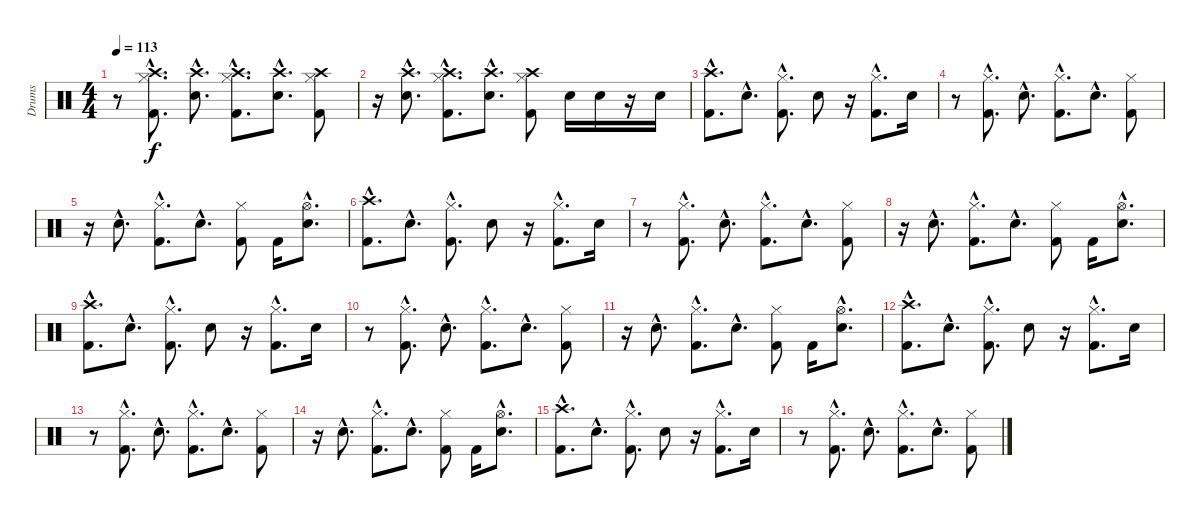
\track ("Drums" "Drums") {instrument percussion}
\staff {score}
\articulation defaults
\ts (4 4)
\tempo 113
\clef neutral
\ks c
r.8{dy f} ("Crash high (hit)"{hac} "Hi-Hat (closed)"{hac} "Kick (hit) 2"{hac}).8{d} ("Crash high (hit)"{hac} "Electric Snare (hit)"{hac}).8{d} ("Crash high (hit)"{hac} "Hi-Hat (closed)"{hac} "Kick (hit) 2"{hac}).8{d} ("Crash high (hit)"{hac} "Electric Snare (hit)"{hac}).8{d} ("Crash high (hit)" "Hi-Hat (closed)" "Kick (hit) 2").8 |
r.16 ("Crash high (hit)"{hac} "Electric Snare (hit)"{hac}).8{d} ("Crash high (hit)"{hac} "Hi-Hat (closed)"{hac} "Kick (hit) 2"{hac}).8{d} ("Crash high (hit)"{hac} "Electric Snare (hit)"{hac}).8{d} ("Crash high (hit)" "Hi-Hat (closed)" "Kick (hit) 2").8 "Electric Snare (hit)".16 "Electric Snare (hit)".16 r.16 "Electric Snare (hit)".16 |
("Crash high (hit)"{hac} "Kick (hit) 2"{hac}).8{d} "Electric Snare (hit)"{hac}.8{d} ("Hi-Hat (closed)"{hac} "Kick (hit) 2"{hac}).8{d} "Electric Snare (hit)".8 r.16 ("Hi-Hat (closed)"{hac} "Kick (hit) 2"{hac}).8{d} "Electric Snare (hit)".16 |
r.8 ("Hi-Hat (closed)"{hac} "Kick (hit) 2"{hac}).8{d} "Electric Snare (hit)"{hac}.8{d} ("Hi-Hat (closed)"{hac} "Kick (hit) 2"{hac}).8{d} "Electric Snare (hit)"{hac}.8{d} ("Hi-Hat (closed)" "Kick (hit) 2").8 |
r.16 "Electric Snare (hit)"{hac}.8{d} ("Hi-Hat (closed)"{hac} "Kick (hit) 2"{hac}).8{d} "Electric Snare (hit)"{hac}.8{d} ("Hi-Hat (closed)" "Kick (hit) 2").8 "Kick (hit) 2".16 ("Hi-Hat (open)"{hac} "Electric Snare (hit)"{hac}).8{d} |
("Crash high (hit)"{hac} "Kick (hit) 2"{hac}).8{d} "Electric Snare (hit)"{hac}.8{d} ("Hi-Hat (closed)"{hac} "Kick (hit) 2"{hac}).8{d} "Electric Snare (hit)".8 r.16 ("Hi-Hat (closed)"{hac} "Kick (hit) 2"{hac}).8{d} "Electric Snare (hit)".16 |
r.8 ("Hi-Hat (closed)"{hac} "Kick (hit) 2"{hac}).8{d} "Electric Snare (hit)"{hac}.8{d} ("Hi-Hat (closed)"{hac} "Kick (hit) 2"{hac}).8{d} "Electric Snare (hit)"{hac}.8{d} ("Hi-Hat (closed)" "Kick (hit) 2").8 |
r.16 "Electric Snare (hit)"{hac}.8{d} ("Hi-Hat (closed)"{hac} "Kick (hit) 2"{hac}).8{d} "Electric Snare (hit)"{hac}.8{d} ("Hi-Hat (closed)" "Kick (hit) 2").8 "Kick (hit) 2".16 ("Hi-Hat (open)"{hac} "Electric Snare (hit)"{hac}).8{d} |
("Crash high (hit)"{hac} "Kick (hit) 2"{hac}).8{d} "Electric Snare (hit)"{hac}.8{d} ("Hi-Hat (closed)"{hac} "Kick (hit) 2"{hac}).8{d} "Electric Snare (hit)".8 r.16 ("Hi-Hat (closed)"{hac} "Kick (hit) 2"{hac}).8{d} "Electric Snare (hit)".16 |
r.8 ("Hi-Hat (closed)"{hac} "Kick (hit) 2"{hac}).8{d} "Electric Snare (hit)"{hac}.8{d} ("Hi-Hat (closed)"{hac} "Kick (hit) 2"{hac}).8{d} "Electric Snare (hit)"{hac}.8{d} ("Hi-Hat (closed)" "Kick (hit) 2").8 |
r.16 "Electric Snare (hit)"{hac}.8{d} ("Hi-Hat (closed)"{hac} "Kick (hit) 2"{hac}).8{d} "Electric Snare (hit)"{hac}.8{d} ("Hi-Hat (closed)" "Kick (hit) 2").8 "Kick (hit) 2".16 ("Hi-Hat (open)"{hac} "Electric Snare (hit)"{hac}).8{d} |
("Crash high (hit)"{hac} "Kick (hit) 2"{hac}).8{d} "Electric Snare (hit)"{hac}.8{d} ("Hi-Hat (closed)"{hac} "Kick (hit) 2"{hac}).8{d} "Electric Snare (hit)".8 r.16 ("Hi-Hat (closed)"{hac} "Kick (hit) 2"{hac}).8{d} "Electric Snare (hit)".16 |
r.8 ("Hi-Hat (closed)"{hac} "Kick (hit) 2"{hac}).8{d} "Electric Snare (hit)"{hac}.8{d} ("Hi-Hat (closed)"{hac} "Kick (hit) 2"{hac}).8{d} "Electric Snare (hit)"{hac}.8{d} ("Hi-Hat (closed)" "Kick (hit) 2").8 |
r.16 "Electric Snare (hit)"{hac}.8{d} ("Hi-Hat (closed)"{hac} "Kick (hit) 2"{hac}).8{d} "Electric Snare (hit)"{hac}.8{d} ("Hi-Hat (closed)" "Kick (hit) 2").8 "Kick (hit) 2".16 ("Hi-Hat (open)"{hac} "Electric Snare (hit)"{hac}).8{d} |
("Crash high (hit)"{hac} "Kick (hit) 2"{hac}).8{d} "Electric Snare (hit)"{hac}.8{d} ("Hi-Hat (closed)"{hac} "Kick (hit) 2"{hac}).8{d} "Electric Snare (hit)".8 r.16 ("Hi-Hat (closed)"{hac} "Kick (hit) 2"{hac}).8{d} "Electric Snare (hit)".16 |
r.8 ("Hi-Hat (closed)"{hac} "Kick (hit) 2"{hac}).8{d} "Electric Snare (hit)"{hac}.8{d} ("Hi-Hat (closed)"{hac} "Kick (hit) 2"{hac}).8{d} "Electric Snare (hit)"{hac}.8{d} ("Hi-Hat (closed)" "Kick (hit) 2").8
